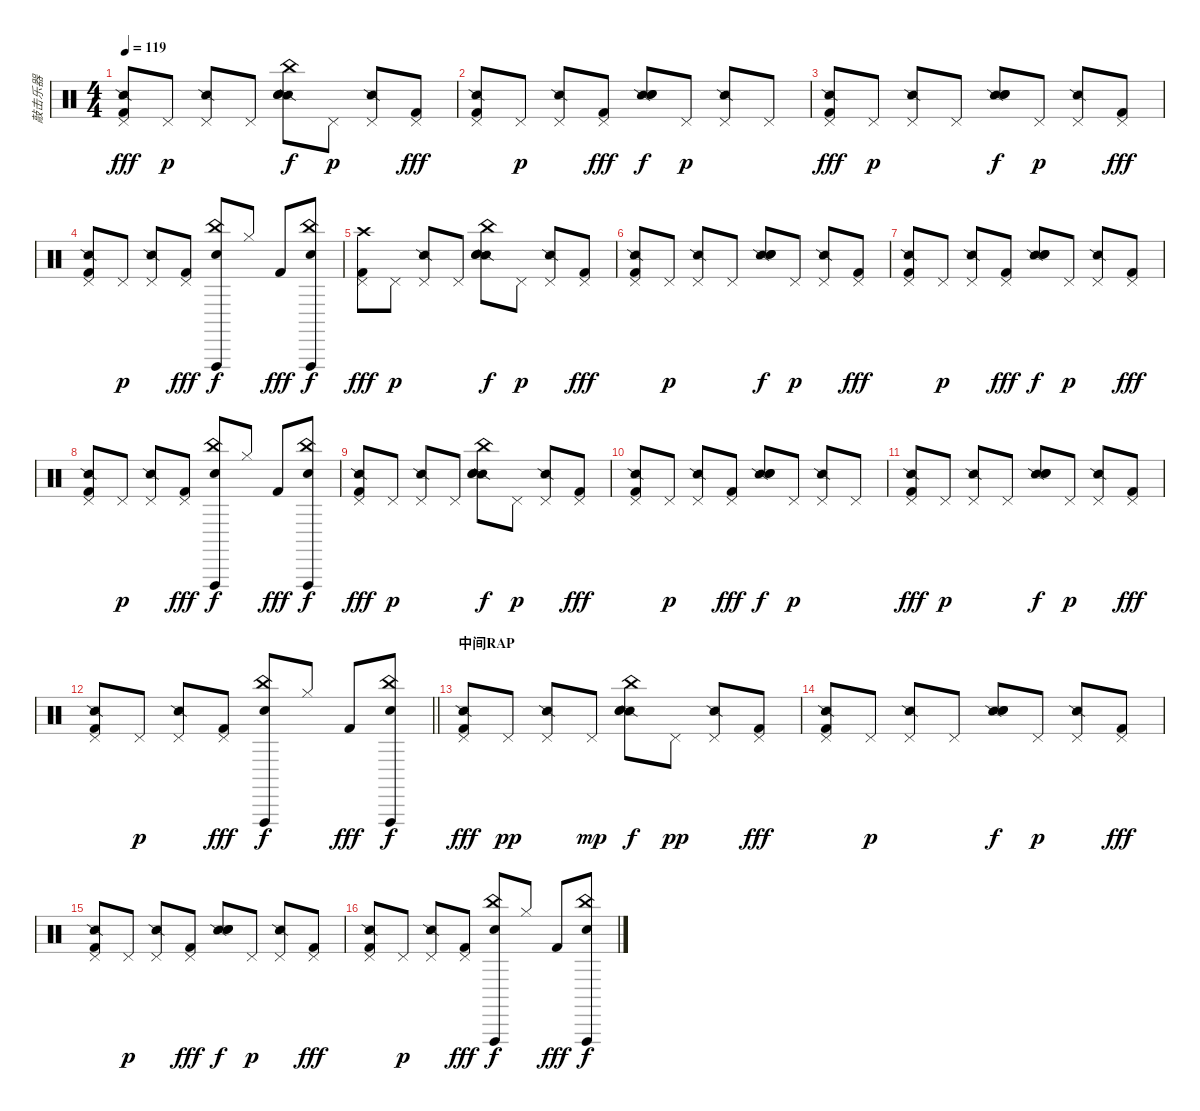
\track ("敲击乐器" "敲击乐器") {instrument percussion}
\staff {score}
\articulation defaults
\ts (4 4)
\tempo 119
\clef neutral
\ks c
("Snare (side stick) 2" "Pedal Hi-Hat (hit)" "Kick (hit) 2").8{dy fff} "Pedal Hi-Hat (hit)".8{dy p} ("Snare (side stick) 2" "Pedal Hi-Hat (hit)").8 "Pedal Hi-Hat (hit)".8 ("Snare (side stick) 2" "Snare (hit) 2" "Hand Clap (hit)" "China (hit)").8{dy f} "Pedal Hi-Hat (hit)".8{dy p} ("Snare (side stick) 2" "Pedal Hi-Hat (hit)").8 ("Pedal Hi-Hat (hit)" "Kick (hit) 2").8{dy fff} |
("Snare (side stick) 2" "Pedal Hi-Hat (hit)" "Kick (hit) 2").8 "Pedal Hi-Hat (hit)".8{dy p} ("Snare (side stick) 2" "Pedal Hi-Hat (hit)").8 ("Pedal Hi-Hat (hit)" "Kick (hit) 2").8{dy fff} ("Snare (side stick) 2" "Snare (hit) 2" "Hand Clap (hit)").8{dy f} "Pedal Hi-Hat (hit)".8{dy p} ("Snare (side stick) 2" "Pedal Hi-Hat (hit)").8 "Pedal Hi-Hat (hit)".8 |
("Snare (side stick) 2" "Pedal Hi-Hat (hit)" "Kick (hit) 2").8{dy fff} "Pedal Hi-Hat (hit)".8{dy p} ("Snare (side stick) 2" "Pedal Hi-Hat (hit)").8 "Pedal Hi-Hat (hit)".8 ("Snare (side stick) 2" "Snare (hit) 2" "Hand Clap (hit)").8{dy f} "Pedal Hi-Hat (hit)".8{dy p} ("Snare (side stick) 2" "Pedal Hi-Hat (hit)").8 ("Pedal Hi-Hat (hit)" "Kick (hit) 2").8{dy fff} |
("Snare (side stick) 2" "Pedal Hi-Hat (hit)" "Kick (hit) 2").8 "Pedal Hi-Hat (hit)".8{dy p} ("Snare (side stick) 2" "Pedal Hi-Hat (hit)").8 ("Pedal Hi-Hat (hit)" "Kick (hit) 2").8{dy fff} ("China (hit)" "Vibraslap (hit)" "Hand Clap (hit)").8{dy f} "Hi-Hat (closed)".8 "Kick (hit) 2".8{dy fff} ("China (hit)" "Vibraslap (hit)" "Hand Clap (hit)").8{dy f} |
("Crash high (hit)" "Pedal Hi-Hat (hit)" "Kick (hit) 2").8{dy fff} "Pedal Hi-Hat (hit)".8{dy p} ("Snare (side stick) 2" "Pedal Hi-Hat (hit)").8 "Pedal Hi-Hat (hit)".8 ("Snare (side stick) 2" "Snare (hit) 2" "Hand Clap (hit)" "China (hit)").8{dy f} "Pedal Hi-Hat (hit)".8{dy p} ("Snare (side stick) 2" "Pedal Hi-Hat (hit)").8 ("Pedal Hi-Hat (hit)" "Kick (hit) 2").8{dy fff} |
("Snare (side stick) 2" "Pedal Hi-Hat (hit)" "Kick (hit) 2").8 "Pedal Hi-Hat (hit)".8{dy p} ("Snare (side stick) 2" "Pedal Hi-Hat (hit)").8 "Pedal Hi-Hat (hit)".8 ("Snare (side stick) 2" "Snare (hit) 2" "Hand Clap (hit)").8{dy f} "Pedal Hi-Hat (hit)".8{dy p} ("Snare (side stick) 2" "Pedal Hi-Hat (hit)").8 ("Pedal Hi-Hat (hit)" "Kick (hit) 2").8{dy fff} |
("Snare (side stick) 2" "Pedal Hi-Hat (hit)" "Kick (hit) 2").8 "Pedal Hi-Hat (hit)".8{dy p} ("Snare (side stick) 2" "Pedal Hi-Hat (hit)").8 ("Pedal Hi-Hat (hit)" "Kick (hit) 2").8{dy fff} ("Snare (side stick) 2" "Snare (hit) 2" "Hand Clap (hit)").8{dy f} "Pedal Hi-Hat (hit)".8{dy p} ("Snare (side stick) 2" "Pedal Hi-Hat (hit)").8 ("Pedal Hi-Hat (hit)" "Kick (hit) 2").8{dy fff} |
("Snare (side stick) 2" "Pedal Hi-Hat (hit)" "Kick (hit) 2").8 "Pedal Hi-Hat (hit)".8{dy p} ("Snare (side stick) 2" "Pedal Hi-Hat (hit)").8 ("Pedal Hi-Hat (hit)" "Kick (hit) 2").8{dy fff} ("China (hit)" "Vibraslap (hit)" "Hand Clap (hit)").8{dy f} "Hi-Hat (closed)".8 "Kick (hit) 2".8{dy fff} ("China (hit)" "Vibraslap (hit)" "Hand Clap (hit)").8{dy f} |
("Snare (side stick) 2" "Pedal Hi-Hat (hit)" "Kick (hit) 2").8{dy fff} "Pedal Hi-Hat (hit)".8{dy p} ("Snare (side stick) 2" "Pedal Hi-Hat (hit)").8 "Pedal Hi-Hat (hit)".8 ("Snare (side stick) 2" "Snare (hit) 2" "Hand Clap (hit)" "China (hit)").8{dy f} "Pedal Hi-Hat (hit)".8{dy p} ("Snare (side stick) 2" "Pedal Hi-Hat (hit)").8 ("Pedal Hi-Hat (hit)" "Kick (hit) 2").8{dy fff} |
("Snare (side stick) 2" "Pedal Hi-Hat (hit)" "Kick (hit) 2").8 "Pedal Hi-Hat (hit)".8{dy p} ("Snare (side stick) 2" "Pedal Hi-Hat (hit)").8 ("Pedal Hi-Hat (hit)" "Kick (hit) 2").8{dy fff} ("Snare (side stick) 2" "Snare (hit) 2" "Hand Clap (hit)").8{dy f} "Pedal Hi-Hat (hit)".8{dy p} ("Snare (side stick) 2" "Pedal Hi-Hat (hit)").8 "Pedal Hi-Hat (hit)".8 |
("Snare (side stick) 2" "Pedal Hi-Hat (hit)" "Kick (hit) 2").8{dy fff} "Pedal Hi-Hat (hit)".8{dy p} ("Snare (side stick) 2" "Pedal Hi-Hat (hit)").8 "Pedal Hi-Hat (hit)".8 ("Snare (side stick) 2" "Snare (hit) 2" "Hand Clap (hit)").8{dy f} "Pedal Hi-Hat (hit)".8{dy p} ("Snare (side stick) 2" "Pedal Hi-Hat (hit)").8 ("Pedal Hi-Hat (hit)" "Kick (hit) 2").8{dy fff} |
\barLineRight lightlight
("Snare (side stick) 2" "Pedal Hi-Hat (hit)" "Kick (hit) 2").8 "Pedal Hi-Hat (hit)".8{dy p} ("Snare (side stick) 2" "Pedal Hi-Hat (hit)").8 ("Pedal Hi-Hat (hit)" "Kick (hit) 2").8{dy fff} ("China (hit)" "Vibraslap (hit)" "Hand Clap (hit)").8{dy f} "Hi-Hat (closed)".8 "Kick (hit) 2".8{dy fff} ("China (hit)" "Vibraslap (hit)" "Hand Clap (hit)").8{dy f} |
\section ("" "中间RAP")
("Snare (side stick) 2" "Pedal Hi-Hat (hit)" "Kick (hit) 2").8{dy fff} "Pedal Hi-Hat (hit)".8{dy pp} ("Snare (side stick) 2" "Pedal Hi-Hat (hit)").8 "Pedal Hi-Hat (hit)".8{dy mp} ("Snare (side stick) 2" "Snare (hit) 2" "Hand Clap (hit)" "China (hit)").8{dy f} "Pedal Hi-Hat (hit)".8{dy pp} ("Snare (side stick) 2" "Pedal Hi-Hat (hit)").8 ("Pedal Hi-Hat (hit)" "Kick (hit) 2").8{dy fff} |
("Snare (side stick) 2" "Pedal Hi-Hat (hit)" "Kick (hit) 2").8 "Pedal Hi-Hat (hit)".8{dy p} ("Snare (side stick) 2" "Pedal Hi-Hat (hit)").8 "Pedal Hi-Hat (hit)".8 ("Snare (side stick) 2" "Snare (hit) 2" "Hand Clap (hit)").8{dy f} "Pedal Hi-Hat (hit)".8{dy p} ("Snare (side stick) 2" "Pedal Hi-Hat (hit)").8 ("Pedal Hi-Hat (hit)" "Kick (hit) 2").8{dy fff} |
("Snare (side stick) 2" "Pedal Hi-Hat (hit)" "Kick (hit) 2").8 "Pedal Hi-Hat (hit)".8{dy p} ("Snare (side stick) 2" "Pedal Hi-Hat (hit)").8 ("Pedal Hi-Hat (hit)" "Kick (hit) 2").8{dy fff} ("Snare (side stick) 2" "Snare (hit) 2" "Hand Clap (hit)").8{dy f} "Pedal Hi-Hat (hit)".8{dy p} ("Snare (side stick) 2" "Pedal Hi-Hat (hit)").8 ("Pedal Hi-Hat (hit)" "Kick (hit) 2").8{dy fff} |
("Snare (side stick) 2" "Pedal Hi-Hat (hit)" "Kick (hit) 2").8 "Pedal Hi-Hat (hit)".8{dy p} ("Snare (side stick) 2" "Pedal Hi-Hat (hit)").8 ("Pedal Hi-Hat (hit)" "Kick (hit) 2").8{dy fff} ("China (hit)" "Vibraslap (hit)" "Hand Clap (hit)").8{dy f} "Hi-Hat (closed)".8 "Kick (hit) 2".8{dy fff} ("China (hit)" "Vibraslap (hit)" "Hand Clap (hit)").8{dy f}
